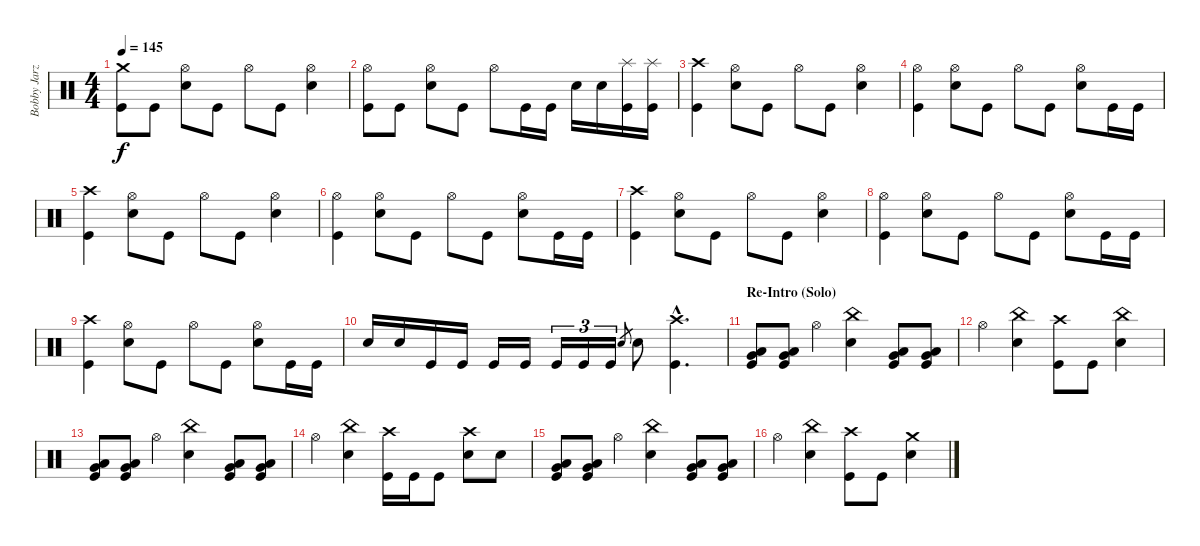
\track ("Bobby Jarzombek" "Bobby Jarz") {instrument percussion}
\staff {score}
\articulation defaults
\ts (4 4)
\tempo 145
\clef neutral
\ks c
("Crash medium (hit)" "Kick (hit)").8{dy f} "Kick (hit)".8 ("Hi-Hat (open)" "Electric Snare (hit)").8 "Kick (hit)".8 "Hi-Hat (open)".8 "Kick (hit)".8 ("Hi-Hat (open)" "Electric Snare (hit)").4 |
("Hi-Hat (open)" "Kick (hit)").8 "Kick (hit)".8 ("Hi-Hat (open)" "Electric Snare (hit)").8 "Kick (hit)".8 "Hi-Hat (open)".8 "Kick (hit)".16 "Kick (hit)".16 "Electric Snare (hit)".16 "Electric Snare (hit)".16 ("Splash (hit)" "Kick (hit)").16 ("Splash (hit)" "Kick (hit)").16 |
("Crash high (hit)" "Kick (hit)").4 ("Hi-Hat (open)" "Electric Snare (hit)").8 "Kick (hit)".8 "Hi-Hat (open)".8 "Kick (hit)".8 ("Hi-Hat (open)" "Electric Snare (hit)").4 |
("Hi-Hat (open)" "Kick (hit)").4 ("Hi-Hat (open)" "Electric Snare (hit)").8 "Kick (hit)".8 "Hi-Hat (open)".8 "Kick (hit)".8 ("Hi-Hat (open)" "Electric Snare (hit)").8 "Kick (hit)".16 "Kick (hit)".16 |
("Crash high (hit)" "Kick (hit)").4 ("Hi-Hat (open)" "Electric Snare (hit)").8 "Kick (hit)".8 "Hi-Hat (open)".8 "Kick (hit)".8 ("Hi-Hat (open)" "Electric Snare (hit)").4 |
("Hi-Hat (open)" "Kick (hit)").4 ("Hi-Hat (open)" "Electric Snare (hit)").8 "Kick (hit)".8 "Hi-Hat (open)".8 "Kick (hit)".8 ("Hi-Hat (open)" "Electric Snare (hit)").8 "Kick (hit)".16 "Kick (hit)".16 |
("Crash high (hit)" "Kick (hit)").4 ("Hi-Hat (open)" "Electric Snare (hit)").8 "Kick (hit)".8 "Hi-Hat (open)".8 "Kick (hit)".8 ("Hi-Hat (open)" "Electric Snare (hit)").4 |
("Hi-Hat (open)" "Kick (hit)").4 ("Hi-Hat (open)" "Electric Snare (hit)").8 "Kick (hit)".8 "Hi-Hat (open)".8 "Kick (hit)".8 ("Hi-Hat (open)" "Electric Snare (hit)").8 "Kick (hit)".16 "Kick (hit)".16 |
("Crash high (hit)" "Kick (hit)").4 ("Hi-Hat (open)" "Electric Snare (hit)").8 "Kick (hit)".8 "Hi-Hat (open)".8 "Kick (hit)".8 ("Hi-Hat (open)" "Electric Snare (hit)").8 "Kick (hit)".16 "Kick (hit)".16 |
"Electric Snare (hit)".16 "Electric Snare (hit)".16 "Kick (hit)".16 "Kick (hit)".16 "Kick (hit)".16 "Kick (hit)".16 "Kick (hit)".16{tu (3 2)} "Kick (hit)".16{tu (3 2)} "Kick (hit)".16{tu (3 2)} "Electric Snare (hit)".8{gr} "Electric Snare (hit)".8 ("Crash high (hit)"{hac} "Kick (hit)"{hac}).4{d} |
\section ("" "Re-Intro (Solo)")
("Low Tom (hit)" "Very Low Tom (hit)" "Kick (hit)").8 ("Low Tom (hit)" "Very Low Tom (hit)" "Kick (hit)").8 "Hi-Hat (open)".4 ("China (hit)" "Electric Snare (hit)").4 ("Low Tom (hit)" "Very Low Tom (hit)" "Kick (hit)").8 ("Low Tom (hit)" "Very Low Tom (hit)" "Kick (hit)").8 |
"Hi-Hat (open)".4 ("China (hit)" "Electric Snare (hit)").4 ("Crash high (hit)" "Kick (hit)").8 "Kick (hit)".8 ("China (hit)" "Electric Snare (hit)").4 |
("Low Tom (hit)" "Very Low Tom (hit)" "Kick (hit)").8 ("Low Tom (hit)" "Very Low Tom (hit)" "Kick (hit)").8 "Hi-Hat (open)".4 ("China (hit)" "Electric Snare (hit)").4 ("Low Tom (hit)" "Very Low Tom (hit)" "Kick (hit)").8 ("Low Tom (hit)" "Very Low Tom (hit)" "Kick (hit)").8 |
"Hi-Hat (open)".4 ("China (hit)" "Electric Snare (hit)").4 ("Crash high (hit)" "Kick (hit)").16 "Kick (hit)".16 "Kick (hit)".8 ("Crash high (hit)" "Electric Snare (hit)").8 "Electric Snare (hit)".8 |
("Low Tom (hit)" "Very Low Tom (hit)" "Kick (hit)").8 ("Low Tom (hit)" "Very Low Tom (hit)" "Kick (hit)").8 "Hi-Hat (open)".4 ("China (hit)" "Electric Snare (hit)").4 ("Low Tom (hit)" "Very Low Tom (hit)" "Kick (hit)").8 ("Low Tom (hit)" "Very Low Tom (hit)" "Kick (hit)").8 |
"Hi-Hat (open)".4 ("China (hit)" "Electric Snare (hit)").4 ("Crash high (hit)" "Kick (hit)").8 "Kick (hit)".8 ("Crash medium (hit)" "Electric Snare (hit)").4
